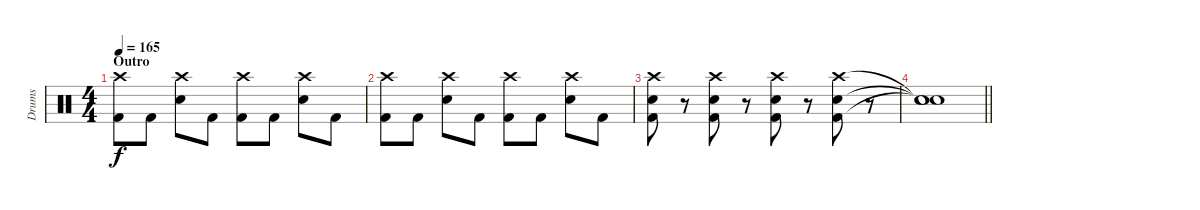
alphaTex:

\track ("Drums" "Drums") {instrument percussion}
\staff {score}
\articulation defaults
\ts (4 4)
\section ("" "Outro")
\tempo 165
\clef neutral
\ks c
("Crash high (hit)" "Kick (hit) 2").8{dy f} "Kick (hit) 2".8 ("Crash high (hit)" "Electric Snare (hit)").8 "Kick (hit) 2".8 ("Crash high (hit)" "Kick (hit) 2").8 "Kick (hit) 2".8 ("Crash high (hit)" "Electric Snare (hit)").8 "Kick (hit) 2".8 |
("Crash high (hit)" "Kick (hit) 2").8 "Kick (hit) 2".8 ("Crash high (hit)" "Electric Snare (hit)").8 "Kick (hit) 2".8 ("Crash high (hit)" "Kick (hit) 2").8 "Kick (hit) 2".8 ("Crash high (hit)" "Electric Snare (hit)").8 "Kick (hit) 2".8 |
("Crash high (hit)" "Electric Snare (hit)" "Kick (hit) 2").8 r.8 ("Crash high (hit)" "Electric Snare (hit)" "Kick (hit) 2").8 r.8 ("Crash high (hit)" "Electric Snare (hit)" "Kick (hit) 2").8 r.8 ("Crash high (hit)" "Electric Snare (hit)" "Kick (hit) 2").8 r.8 |
\barLineRight lightlight
("Snare (hit)"{t} "Snare (hit)"{t} "Snare (hit)"{t}).1
